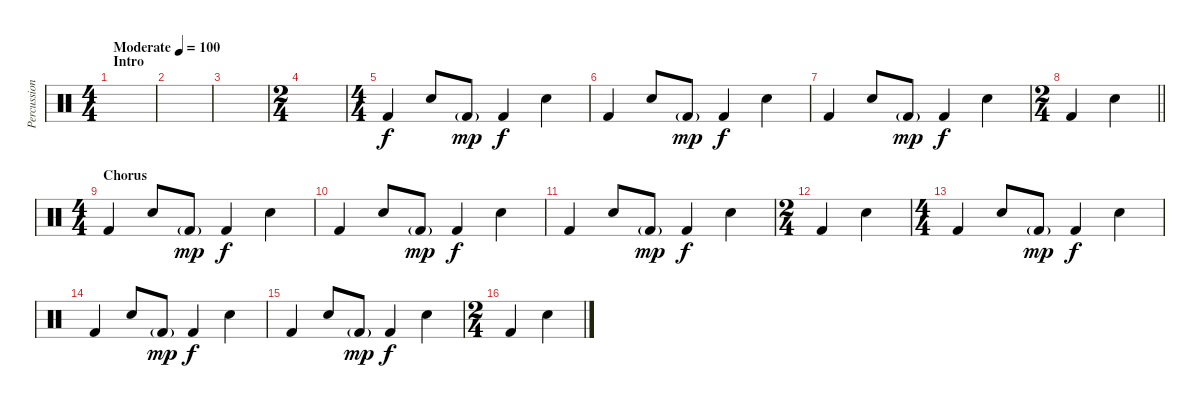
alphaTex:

\track ("Percussion" "Percussion") {instrument percussion}
\staff {score}
\articulation defaults
\ts (4 4)
\section ("" "Intro")
\tempo (100 "Moderate")
\clef neutral
\ks c
|
|
|
\ts (2 4)
|
\ts (4 4)
"Kick (hit) 2".4 "Snare (hit) 2".8 "Kick (hit) 2"{g}.8{dy mp} "Kick (hit) 2".4{dy f} "Snare (hit) 2".4 |
"Kick (hit) 2".4 "Snare (hit) 2".8 "Kick (hit) 2"{g}.8{dy mp} "Kick (hit) 2".4{dy f} "Snare (hit) 2".4 |
"Kick (hit) 2".4 "Snare (hit) 2".8 "Kick (hit) 2"{g}.8{dy mp} "Kick (hit) 2".4{dy f} "Snare (hit) 2".4 |
\ts (2 4)
\barLineRight lightlight "Kick (hit) 2".4 "Snare (hit) 2".4
|
\ts (4 4)
\section ("" "Chorus")
"Kick (hit) 2".4 "Snare (hit) 2".8 "Kick (hit) 2"{g}.8{dy mp} "Kick (hit) 2".4{dy f} "Snare (hit) 2".4 |
"Kick (hit) 2".4 "Snare (hit) 2".8 "Kick (hit) 2"{g}.8{dy mp} "Kick (hit) 2".4{dy f} "Snare (hit) 2".4 |
"Kick (hit) 2".4 "Snare (hit) 2".8 "Kick (hit) 2"{g}.8{dy mp} "Kick (hit) 2".4{dy f} "Snare (hit) 2".4 |
\ts (2 4)
"Kick (hit) 2".4 "Snare (hit) 2".4 |
\ts (4 4)
"Kick (hit) 2".4 "Snare (hit) 2".8 "Kick (hit) 2"{g}.8{dy mp} "Kick (hit) 2".4{dy f} "Snare (hit) 2".4 |
"Kick (hit) 2".4 "Snare (hit) 2".8 "Kick (hit) 2"{g}.8{dy mp} "Kick (hit) 2".4{dy f} "Snare (hit) 2".4 |
"Kick (hit) 2".4 "Snare (hit) 2".8 "Kick (hit) 2"{g}.8{dy mp} "Kick (hit) 2".4{dy f} "Snare (hit) 2".4 |
\ts (2 4)
"Kick (hit) 2".4 "Snare (hit) 2".4
